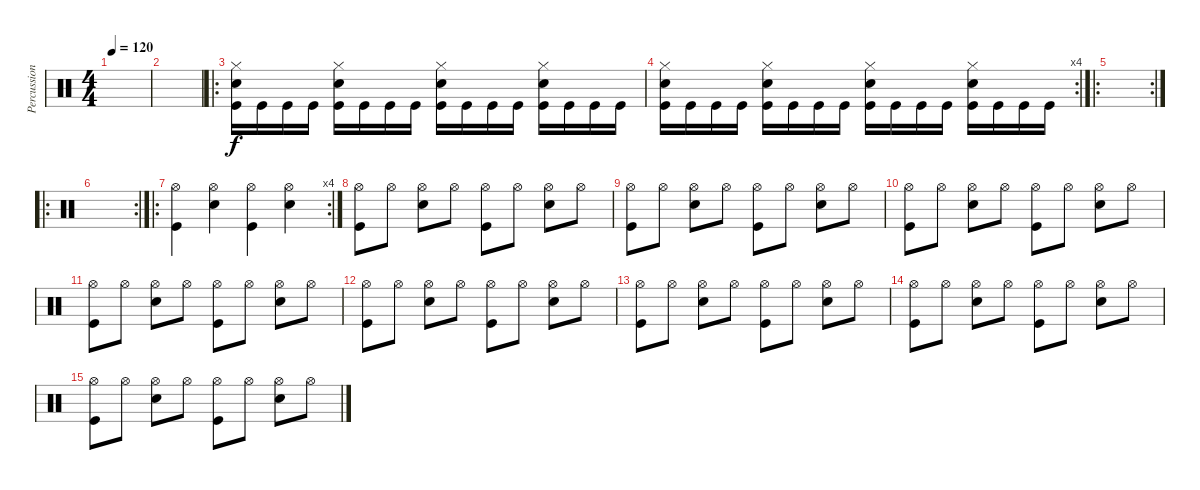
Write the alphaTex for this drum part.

\track ("Percussion" "Percussion") {instrument percussion}
\staff {score}
\articulation defaults
\ts (4 4)
\tempo 120
\clef neutral
\ks c
|
|
\ro
("Hi-Hat (closed)" "Snare (hit) 2" "Kick (hit)").16 "Kick (hit)".16 "Kick (hit)".16 "Kick (hit)".16 ("Hi-Hat (closed)" "Snare (hit) 2" "Kick (hit)").16 "Kick (hit)".16 "Kick (hit)".16 "Kick (hit)".16 ("Hi-Hat (closed)" "Snare (hit) 2" "Kick (hit)").16 "Kick (hit)".16 "Kick (hit)".16 "Kick (hit)".16 ("Hi-Hat (closed)" "Snare (hit) 2" "Kick (hit)").16 "Kick (hit)".16 "Kick (hit)".16 "Kick (hit)".16 |
\rc 4
("Hi-Hat (closed)" "Snare (hit) 2" "Kick (hit)").16 "Kick (hit)".16 "Kick (hit)".16 "Kick (hit)".16 ("Hi-Hat (closed)" "Snare (hit) 2" "Kick (hit)").16 "Kick (hit)".16 "Kick (hit)".16 "Kick (hit)".16 ("Hi-Hat (closed)" "Snare (hit) 2" "Kick (hit)").16 "Kick (hit)".16 "Kick (hit)".16 "Kick (hit)".16 ("Hi-Hat (closed)" "Snare (hit) 2" "Kick (hit)").16 "Kick (hit)".16 "Kick (hit)".16 "Kick (hit)".16 |
\ro
\rc 2
|
\ro
\rc 2
|
\ro
\rc 4
("Hi-Hat (open)" "Kick (hit)").4 ("Hi-Hat (open)" "Snare (hit) 2").4 ("Hi-Hat (open)" "Kick (hit)").4 ("Hi-Hat (open)" "Snare (hit) 2").4 |
("Hi-Hat (open)" "Kick (hit)").8 "Hi-Hat (open)".8 ("Hi-Hat (open)" "Snare (hit) 2").8 "Hi-Hat (open)".8 ("Hi-Hat (open)" "Kick (hit)").8 "Hi-Hat (open)".8 ("Hi-Hat (open)" "Snare (hit) 2").8 "Hi-Hat (open)".8 |
("Hi-Hat (open)" "Kick (hit)").8 "Hi-Hat (open)".8 ("Hi-Hat (open)" "Snare (hit) 2").8 "Hi-Hat (open)".8 ("Hi-Hat (open)" "Kick (hit)").8 "Hi-Hat (open)".8 ("Hi-Hat (open)" "Snare (hit) 2").8 "Hi-Hat (open)".8 |
("Hi-Hat (open)" "Kick (hit)").8 "Hi-Hat (open)".8 ("Hi-Hat (open)" "Snare (hit) 2").8 "Hi-Hat (open)".8 ("Hi-Hat (open)" "Kick (hit)").8 "Hi-Hat (open)".8 ("Hi-Hat (open)" "Snare (hit) 2").8 "Hi-Hat (open)".8 |
("Hi-Hat (open)" "Kick (hit)").8 "Hi-Hat (open)".8 ("Hi-Hat (open)" "Snare (hit) 2").8 "Hi-Hat (open)".8 ("Hi-Hat (open)" "Kick (hit)").8 "Hi-Hat (open)".8 ("Hi-Hat (open)" "Snare (hit) 2").8 "Hi-Hat (open)".8 |
("Hi-Hat (open)" "Kick (hit)").8 "Hi-Hat (open)".8 ("Hi-Hat (open)" "Snare (hit) 2").8 "Hi-Hat (open)".8 ("Hi-Hat (open)" "Kick (hit)").8 "Hi-Hat (open)".8 ("Hi-Hat (open)" "Snare (hit) 2").8 "Hi-Hat (open)".8 |
("Hi-Hat (open)" "Kick (hit)").8 "Hi-Hat (open)".8 ("Hi-Hat (open)" "Snare (hit) 2").8 "Hi-Hat (open)".8 ("Hi-Hat (open)" "Kick (hit)").8 "Hi-Hat (open)".8 ("Hi-Hat (open)" "Snare (hit) 2").8 "Hi-Hat (open)".8 |
("Hi-Hat (open)" "Kick (hit)").8 "Hi-Hat (open)".8 ("Hi-Hat (open)" "Snare (hit) 2").8 "Hi-Hat (open)".8 ("Hi-Hat (open)" "Kick (hit)").8 "Hi-Hat (open)".8 ("Hi-Hat (open)" "Snare (hit) 2").8 "Hi-Hat (open)".8 |
("Hi-Hat (open)" "Kick (hit)").8 "Hi-Hat (open)".8 ("Hi-Hat (open)" "Snare (hit) 2").8 "Hi-Hat (open)".8 ("Hi-Hat (open)" "Kick (hit)").8 "Hi-Hat (open)".8 ("Hi-Hat (open)" "Snare (hit) 2").8 "Hi-Hat (open)".8
